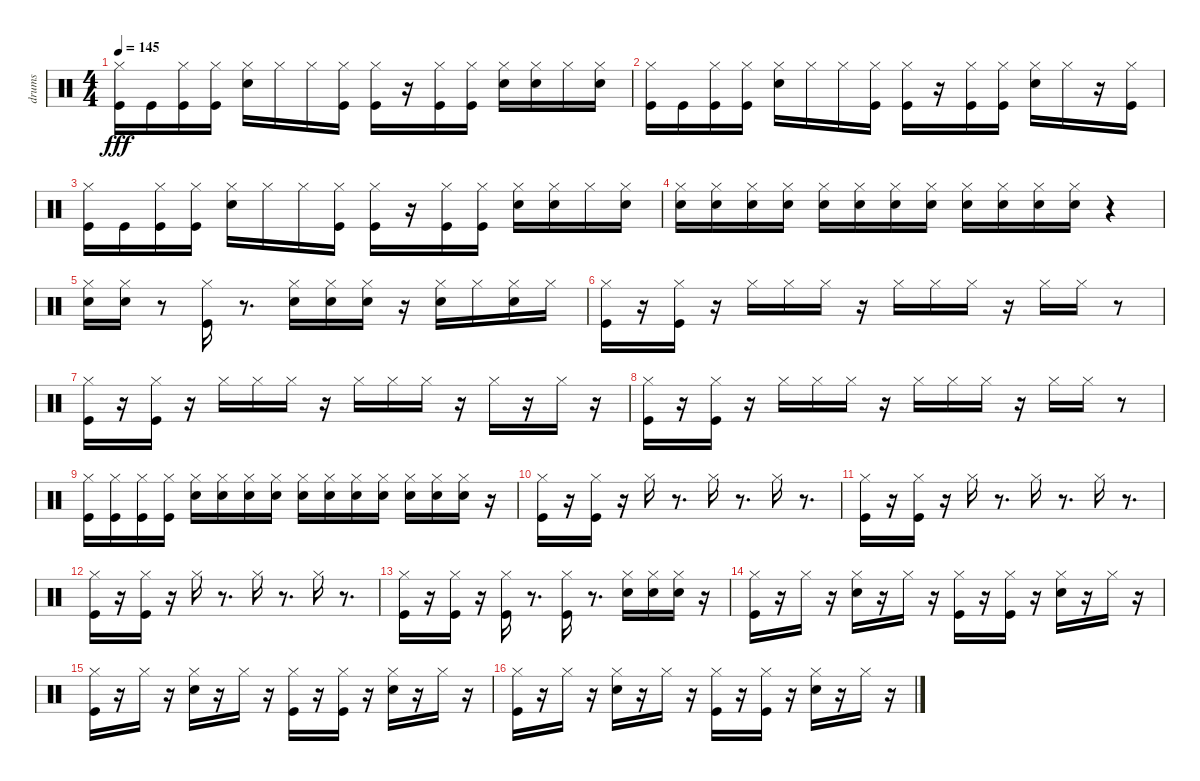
\track ("drums" "drums") {instrument percussion}
\staff {score}
\articulation defaults
\ts (4 4)
\tempo 145
\clef neutral
\ks c
("Kick (hit)" "Hi-Hat (closed)").16{dy fff} "Kick (hit)".16 ("Kick (hit)" "Hi-Hat (closed)").16 ("Kick (hit)" "Hi-Hat (closed)").16 ("Snare (hit) 2" "Hi-Hat (closed)").16 "Hi-Hat (closed)".16 "Hi-Hat (closed)".16 ("Kick (hit)" "Hi-Hat (closed)").16 ("Kick (hit)" "Hi-Hat (closed)").16 r.16 ("Kick (hit)" "Hi-Hat (closed)").16 ("Kick (hit)" "Hi-Hat (closed)").16 ("Snare (hit) 2" "Hi-Hat (closed)").16 ("Snare (hit) 2" "Hi-Hat (closed)").16 "Hi-Hat (closed)".16 ("Snare (hit) 2" "Hi-Hat (closed)").16 |
("Kick (hit)" "Hi-Hat (closed)").16 "Kick (hit)".16 ("Kick (hit)" "Hi-Hat (closed)").16 ("Kick (hit)" "Hi-Hat (closed)").16 ("Snare (hit) 2" "Hi-Hat (closed)").16 "Hi-Hat (closed)".16 "Hi-Hat (closed)".16 ("Kick (hit)" "Hi-Hat (closed)").16 ("Kick (hit)" "Hi-Hat (closed)").16 r.16 ("Kick (hit)" "Hi-Hat (closed)").16 ("Kick (hit)" "Hi-Hat (closed)").16 ("Snare (hit) 2" "Hi-Hat (closed)").16 "Hi-Hat (closed)".16 r.16 ("Kick (hit)" "Hi-Hat (closed)").16 |
("Kick (hit)" "Hi-Hat (closed)").16 "Kick (hit)".16 ("Kick (hit)" "Hi-Hat (closed)").16 ("Kick (hit)" "Hi-Hat (closed)").16 ("Snare (hit) 2" "Hi-Hat (closed)").16 "Hi-Hat (closed)".16 "Hi-Hat (closed)".16 ("Kick (hit)" "Hi-Hat (closed)").16 ("Kick (hit)" "Hi-Hat (closed)").16 r.16 ("Kick (hit)" "Hi-Hat (closed)").16 ("Kick (hit)" "Hi-Hat (closed)").16 ("Snare (hit) 2" "Hi-Hat (closed)").16 ("Snare (hit) 2" "Hi-Hat (closed)").16 "Hi-Hat (closed)".16 ("Snare (hit) 2" "Hi-Hat (closed)").16 |
("Snare (hit) 2" "Hi-Hat (closed)").16 ("Snare (hit) 2" "Hi-Hat (closed)").16 ("Snare (hit) 2" "Hi-Hat (closed)").16 ("Snare (hit) 2" "Hi-Hat (closed)").16 ("Snare (hit) 2" "Hi-Hat (closed)").16 ("Snare (hit) 2" "Hi-Hat (closed)").16 ("Snare (hit) 2" "Hi-Hat (closed)").16 ("Snare (hit) 2" "Hi-Hat (closed)").16 ("Snare (hit) 2" "Hi-Hat (closed)").16 ("Snare (hit) 2" "Hi-Hat (closed)").16 ("Snare (hit) 2" "Hi-Hat (closed)").16 ("Snare (hit) 2" "Hi-Hat (closed)").16 r.4 |
("Snare (hit) 2" "Hi-Hat (closed)").16 ("Snare (hit) 2" "Hi-Hat (closed)").16 r.8 ("Kick (hit)" "Hi-Hat (closed)").16 r.8{d} ("Snare (hit) 2" "Hi-Hat (closed)").16 ("Snare (hit) 2" "Hi-Hat (closed)").16 ("Snare (hit) 2" "Hi-Hat (closed)").16 r.16 ("Snare (hit) 2" "Hi-Hat (closed)").16 "Hi-Hat (closed)".16 ("Snare (hit) 2" "Hi-Hat (closed)").16 "Hi-Hat (closed)".16 |
("Kick (hit)" "Hi-Hat (closed)").16 r.16 ("Kick (hit)" "Hi-Hat (closed)").16 r.16 "Hi-Hat (closed)".16 "Hi-Hat (closed)".16 "Hi-Hat (closed)".16 r.16 "Hi-Hat (closed)".16 "Hi-Hat (closed)".16 "Hi-Hat (closed)".16 r.16 "Hi-Hat (closed)".16 "Hi-Hat (closed)".16 r.8 |
("Kick (hit)" "Hi-Hat (closed)").16 r.16 ("Kick (hit)" "Hi-Hat (closed)").16 r.16 "Hi-Hat (closed)".16 "Hi-Hat (closed)".16 "Hi-Hat (closed)".16 r.16 "Hi-Hat (closed)".16 "Hi-Hat (closed)".16 "Hi-Hat (closed)".16 r.16 "Hi-Hat (closed)".16 r.16 "Hi-Hat (closed)".16 r.16 |
("Kick (hit)" "Hi-Hat (closed)").16 r.16 ("Kick (hit)" "Hi-Hat (closed)").16 r.16 "Hi-Hat (closed)".16 "Hi-Hat (closed)".16 "Hi-Hat (closed)".16 r.16 "Hi-Hat (closed)".16 "Hi-Hat (closed)".16 "Hi-Hat (closed)".16 r.16 "Hi-Hat (closed)".16 "Hi-Hat (closed)".16 r.8 |
("Kick (hit)" "Hi-Hat (closed)").16 ("Kick (hit)" "Hi-Hat (closed)").16 ("Kick (hit)" "Hi-Hat (closed)").16 ("Kick (hit)" "Hi-Hat (closed)").16 ("Snare (hit) 2" "Hi-Hat (closed)").16 ("Snare (hit) 2" "Hi-Hat (closed)").16 ("Snare (hit) 2" "Hi-Hat (closed)").16 ("Snare (hit) 2" "Hi-Hat (closed)").16 ("Snare (hit) 2" "Hi-Hat (closed)").16 ("Snare (hit) 2" "Hi-Hat (closed)").16 ("Snare (hit) 2" "Hi-Hat (closed)").16 ("Snare (hit) 2" "Hi-Hat (closed)").16 ("Snare (hit) 2" "Hi-Hat (closed)").16 ("Snare (hit) 2" "Hi-Hat (closed)").16 ("Snare (hit) 2" "Hi-Hat (closed)").16 r.16 |
("Kick (hit)" "Hi-Hat (closed)").16 r.16 ("Kick (hit)" "Hi-Hat (closed)").16 r.16 "Hi-Hat (closed)".16 r.8{d} "Hi-Hat (closed)".16 r.8{d} "Hi-Hat (closed)".16 r.8{d} |
("Kick (hit)" "Hi-Hat (closed)").16 r.16 ("Kick (hit)" "Hi-Hat (closed)").16 r.16 "Hi-Hat (closed)".16 r.8{d} "Hi-Hat (closed)".16 r.8{d} "Hi-Hat (closed)".16 r.8{d} |
("Kick (hit)" "Hi-Hat (closed)").16 r.16 ("Kick (hit)" "Hi-Hat (closed)").16 r.16 "Hi-Hat (closed)".16 r.8{d} "Hi-Hat (closed)".16 r.8{d} "Hi-Hat (closed)".16 r.8{d} |
("Kick (hit)" "Hi-Hat (closed)").16 r.16 ("Kick (hit)" "Hi-Hat (closed)").16 r.16 ("Kick (hit)" "Hi-Hat (closed)").16 r.8{d} ("Kick (hit)" "Hi-Hat (closed)").16 r.8{d} ("Snare (hit) 2" "Hi-Hat (closed)").16 ("Snare (hit) 2" "Hi-Hat (closed)").16 ("Snare (hit) 2" "Hi-Hat (closed)").16 r.16 |
("Kick (hit)" "Hi-Hat (closed)").16 r.16 "Hi-Hat (closed)".16 r.16 ("Snare (hit) 2" "Hi-Hat (closed)").16 r.16 "Hi-Hat (closed)".16 r.16 ("Kick (hit)" "Hi-Hat (closed)").16 r.16 ("Kick (hit)" "Hi-Hat (closed)").16 r.16 ("Snare (hit) 2" "Hi-Hat (closed)").16 r.16 "Hi-Hat (closed)".16 r.16 |
("Kick (hit)" "Hi-Hat (closed)").16 r.16 "Hi-Hat (closed)".16 r.16 ("Snare (hit) 2" "Hi-Hat (closed)").16 r.16 "Hi-Hat (closed)".16 r.16 ("Kick (hit)" "Hi-Hat (closed)").16 r.16 ("Kick (hit)" "Hi-Hat (closed)").16 r.16 ("Snare (hit) 2" "Hi-Hat (closed)").16 r.16 "Hi-Hat (closed)".16 r.16 |
("Kick (hit)" "Hi-Hat (closed)").16 r.16 "Hi-Hat (closed)".16 r.16 ("Snare (hit) 2" "Hi-Hat (closed)").16 r.16 "Hi-Hat (closed)".16 r.16 ("Kick (hit)" "Hi-Hat (closed)").16 r.16 ("Kick (hit)" "Hi-Hat (closed)").16 r.16 ("Snare (hit) 2" "Hi-Hat (closed)").16 r.16 "Hi-Hat (closed)".16 r.16
